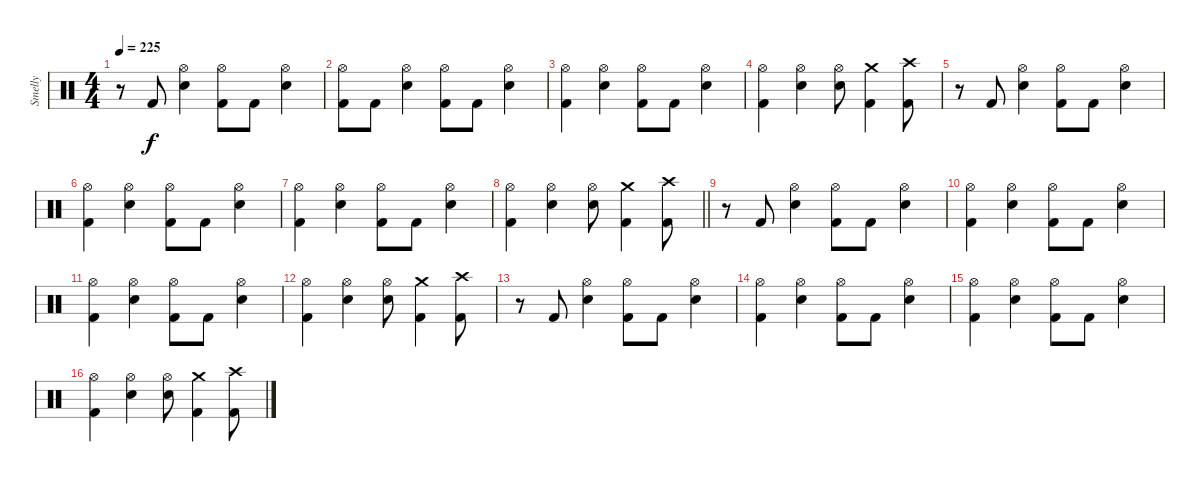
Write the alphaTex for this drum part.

\track ("Smelly" "Smelly") {instrument percussion}
\staff {score}
\articulation defaults
\ts (4 4)
\tempo 225
\clef neutral
\ks c
r.8{dy f} "Kick (hit) 2".8 ("Hi-Hat (open)" "Electric Snare (hit)").4 ("Hi-Hat (open)" "Kick (hit) 2").8 "Kick (hit) 2".8 ("Hi-Hat (open)" "Electric Snare (hit)").4 |
("Hi-Hat (open)" "Kick (hit) 2").8 "Kick (hit) 2".8 ("Hi-Hat (open)" "Electric Snare (hit)").4 ("Hi-Hat (open)" "Kick (hit) 2").8 "Kick (hit) 2".8 ("Hi-Hat (open)" "Electric Snare (hit)").4 |
("Hi-Hat (open)" "Kick (hit) 2").4 ("Hi-Hat (open)" "Electric Snare (hit)").4 ("Hi-Hat (open)" "Kick (hit) 2").8 "Kick (hit) 2".8 ("Hi-Hat (open)" "Electric Snare (hit)").4 |
("Hi-Hat (open)" "Kick (hit) 2").4 ("Hi-Hat (open)" "Electric Snare (hit)").4 ("Hi-Hat (open)" "Electric Snare (hit)").8 ("Crash medium (hit)" "Kick (hit) 2").4 ("Crash high (hit)" "Kick (hit) 2").8 |
r.8 "Kick (hit) 2".8 ("Hi-Hat (open)" "Electric Snare (hit)").4 ("Hi-Hat (open)" "Kick (hit) 2").8 "Kick (hit) 2".8 ("Hi-Hat (open)" "Electric Snare (hit)").4 |
("Hi-Hat (open)" "Kick (hit) 2").4 ("Hi-Hat (open)" "Electric Snare (hit)").4 ("Hi-Hat (open)" "Kick (hit) 2").8 "Kick (hit) 2".8 ("Hi-Hat (open)" "Electric Snare (hit)").4 |
("Hi-Hat (open)" "Kick (hit) 2").4 ("Hi-Hat (open)" "Electric Snare (hit)").4 ("Hi-Hat (open)" "Kick (hit) 2").8 "Kick (hit) 2".8 ("Hi-Hat (open)" "Electric Snare (hit)").4 |
\barLineRight lightlight
("Hi-Hat (open)" "Kick (hit) 2").4 ("Hi-Hat (open)" "Electric Snare (hit)").4 ("Hi-Hat (open)" "Electric Snare (hit)").8 ("Crash medium (hit)" "Kick (hit) 2").4 ("Crash high (hit)" "Kick (hit) 2").8 |
r.8 "Kick (hit) 2".8 ("Hi-Hat (open)" "Electric Snare (hit)").4 ("Hi-Hat (open)" "Kick (hit) 2").8 "Kick (hit) 2".8 ("Hi-Hat (open)" "Electric Snare (hit)").4 |
("Hi-Hat (open)" "Kick (hit) 2").4 ("Hi-Hat (open)" "Electric Snare (hit)").4 ("Hi-Hat (open)" "Kick (hit) 2").8 "Kick (hit) 2".8 ("Hi-Hat (open)" "Electric Snare (hit)").4 |
("Hi-Hat (open)" "Kick (hit) 2").4 ("Hi-Hat (open)" "Electric Snare (hit)").4 ("Hi-Hat (open)" "Kick (hit) 2").8 "Kick (hit) 2".8 ("Hi-Hat (open)" "Electric Snare (hit)").4 |
("Hi-Hat (open)" "Kick (hit) 2").4 ("Hi-Hat (open)" "Electric Snare (hit)").4 ("Hi-Hat (open)" "Electric Snare (hit)").8 ("Crash medium (hit)" "Kick (hit) 2").4 ("Crash high (hit)" "Kick (hit) 2").8 |
r.8 "Kick (hit) 2".8 ("Hi-Hat (open)" "Electric Snare (hit)").4 ("Hi-Hat (open)" "Kick (hit) 2").8 "Kick (hit) 2".8 ("Hi-Hat (open)" "Electric Snare (hit)").4 |
("Hi-Hat (open)" "Kick (hit) 2").4 ("Hi-Hat (open)" "Electric Snare (hit)").4 ("Hi-Hat (open)" "Kick (hit) 2").8 "Kick (hit) 2".8 ("Hi-Hat (open)" "Electric Snare (hit)").4 |
("Hi-Hat (open)" "Kick (hit) 2").4 ("Hi-Hat (open)" "Electric Snare (hit)").4 ("Hi-Hat (open)" "Kick (hit) 2").8 "Kick (hit) 2".8 ("Hi-Hat (open)" "Electric Snare (hit)").4 |
("Hi-Hat (open)" "Kick (hit) 2").4 ("Hi-Hat (open)" "Electric Snare (hit)").4 ("Hi-Hat (open)" "Electric Snare (hit)").8 ("Crash medium (hit)" "Kick (hit) 2").4 ("Crash high (hit)" "Kick (hit) 2").8
